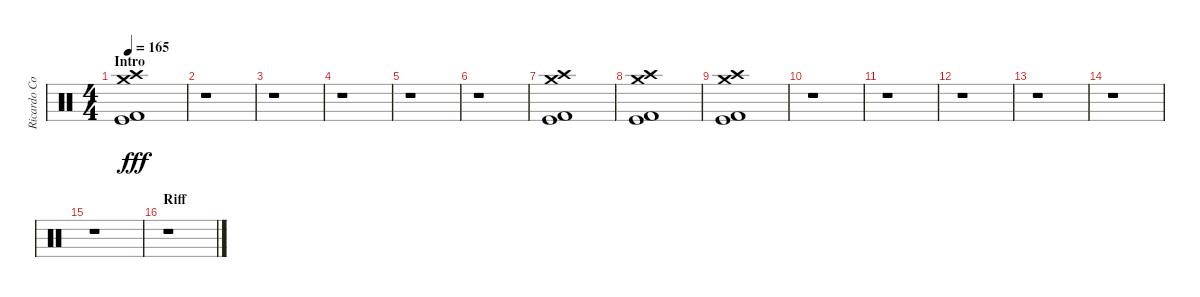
\track ("Ricardo Confessori" "Ricardo Co") {instrument percussion}
\staff {score}
\articulation defaults
\ts (4 4)
\section ("" "Intro")
\tempo 165
\clef neutral
\ks c
("Crash high (hit)" "Crash medium (hit)" "Kick (hit) 2" "Kick (hit)").1{dy fff} |
r.1 |
r.1 |
r.1 |
r.1 |
r.1 |
("Crash high (hit)" "Crash medium (hit)" "Kick (hit) 2" "Kick (hit)").1 |
("Crash high (hit)" "Crash medium (hit)" "Kick (hit) 2" "Kick (hit)").1 |
("Crash high (hit)" "Crash medium (hit)" "Kick (hit) 2" "Kick (hit)").1 |
r.1 |
r.1 |
r.1 |
r.1 |
r.1 |
r.1 |
\section ("" "Riff")
r.1
